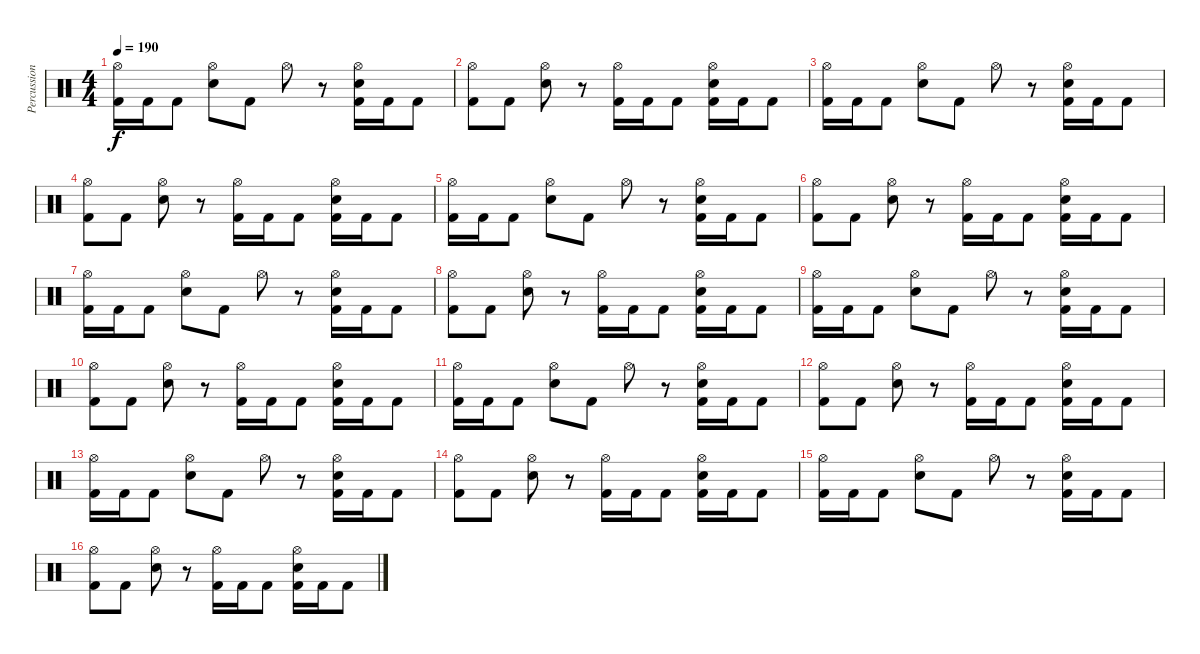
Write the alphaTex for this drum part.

\track ("Percussion" "Percussion") {instrument percussion}
\staff {score}
\articulation defaults
\ts (4 4)
\tempo 190
\clef neutral
\ks c
("Hi-Hat (open)" "Kick (hit) 2").16{dy f} "Kick (hit) 2".16 "Kick (hit) 2".8 ("Hi-Hat (open)" "Electric Snare (hit)").8 "Kick (hit) 2".8 "Hi-Hat (open)".8 r.8 ("Hi-Hat (open)" "Electric Snare (hit)" "Kick (hit) 2").16 "Kick (hit) 2".16 "Kick (hit) 2".8 |
("Hi-Hat (open)" "Kick (hit) 2").8 "Kick (hit) 2".8 ("Hi-Hat (open)" "Electric Snare (hit)").8 r.8 ("Hi-Hat (open)" "Kick (hit) 2").16 "Kick (hit) 2".16 "Kick (hit) 2".8 ("Hi-Hat (open)" "Electric Snare (hit)" "Kick (hit) 2").16 "Kick (hit) 2".16 "Kick (hit) 2".8 |
("Hi-Hat (open)" "Kick (hit) 2").16 "Kick (hit) 2".16 "Kick (hit) 2".8 ("Hi-Hat (open)" "Electric Snare (hit)").8 "Kick (hit) 2".8 "Hi-Hat (open)".8 r.8 ("Hi-Hat (open)" "Electric Snare (hit)" "Kick (hit) 2").16 "Kick (hit) 2".16 "Kick (hit) 2".8 |
("Hi-Hat (open)" "Kick (hit) 2").8 "Kick (hit) 2".8 ("Hi-Hat (open)" "Electric Snare (hit)").8 r.8 ("Hi-Hat (open)" "Kick (hit) 2").16 "Kick (hit) 2".16 "Kick (hit) 2".8 ("Hi-Hat (open)" "Electric Snare (hit)" "Kick (hit) 2").16 "Kick (hit) 2".16 "Kick (hit) 2".8 |
("Hi-Hat (open)" "Kick (hit) 2").16 "Kick (hit) 2".16 "Kick (hit) 2".8 ("Hi-Hat (open)" "Electric Snare (hit)").8 "Kick (hit) 2".8 "Hi-Hat (open)".8 r.8 ("Hi-Hat (open)" "Electric Snare (hit)" "Kick (hit) 2").16 "Kick (hit) 2".16 "Kick (hit) 2".8 |
("Hi-Hat (open)" "Kick (hit) 2").8 "Kick (hit) 2".8 ("Hi-Hat (open)" "Electric Snare (hit)").8 r.8 ("Hi-Hat (open)" "Kick (hit) 2").16 "Kick (hit) 2".16 "Kick (hit) 2".8 ("Hi-Hat (open)" "Electric Snare (hit)" "Kick (hit) 2").16 "Kick (hit) 2".16 "Kick (hit) 2".8 |
("Hi-Hat (open)" "Kick (hit) 2").16 "Kick (hit) 2".16 "Kick (hit) 2".8 ("Hi-Hat (open)" "Electric Snare (hit)").8 "Kick (hit) 2".8 "Hi-Hat (open)".8 r.8 ("Hi-Hat (open)" "Electric Snare (hit)" "Kick (hit) 2").16 "Kick (hit) 2".16 "Kick (hit) 2".8 |
("Hi-Hat (open)" "Kick (hit) 2").8 "Kick (hit) 2".8 ("Hi-Hat (open)" "Electric Snare (hit)").8 r.8 ("Hi-Hat (open)" "Kick (hit) 2").16 "Kick (hit) 2".16 "Kick (hit) 2".8 ("Hi-Hat (open)" "Electric Snare (hit)" "Kick (hit) 2").16 "Kick (hit) 2".16 "Kick (hit) 2".8 |
("Hi-Hat (open)" "Kick (hit) 2").16 "Kick (hit) 2".16 "Kick (hit) 2".8 ("Hi-Hat (open)" "Electric Snare (hit)").8 "Kick (hit) 2".8 "Hi-Hat (open)".8 r.8 ("Hi-Hat (open)" "Electric Snare (hit)" "Kick (hit) 2").16 "Kick (hit) 2".16 "Kick (hit) 2".8 |
("Hi-Hat (open)" "Kick (hit) 2").8 "Kick (hit) 2".8 ("Hi-Hat (open)" "Electric Snare (hit)").8 r.8 ("Hi-Hat (open)" "Kick (hit) 2").16 "Kick (hit) 2".16 "Kick (hit) 2".8 ("Hi-Hat (open)" "Electric Snare (hit)" "Kick (hit) 2").16 "Kick (hit) 2".16 "Kick (hit) 2".8 |
("Hi-Hat (open)" "Kick (hit) 2").16 "Kick (hit) 2".16 "Kick (hit) 2".8 ("Hi-Hat (open)" "Electric Snare (hit)").8 "Kick (hit) 2".8 "Hi-Hat (open)".8 r.8 ("Hi-Hat (open)" "Electric Snare (hit)" "Kick (hit) 2").16 "Kick (hit) 2".16 "Kick (hit) 2".8 |
("Hi-Hat (open)" "Kick (hit) 2").8 "Kick (hit) 2".8 ("Hi-Hat (open)" "Electric Snare (hit)").8 r.8 ("Hi-Hat (open)" "Kick (hit) 2").16 "Kick (hit) 2".16 "Kick (hit) 2".8 ("Hi-Hat (open)" "Electric Snare (hit)" "Kick (hit) 2").16 "Kick (hit) 2".16 "Kick (hit) 2".8 |
("Hi-Hat (open)" "Kick (hit) 2").16 "Kick (hit) 2".16 "Kick (hit) 2".8 ("Hi-Hat (open)" "Electric Snare (hit)").8 "Kick (hit) 2".8 "Hi-Hat (open)".8 r.8 ("Hi-Hat (open)" "Electric Snare (hit)" "Kick (hit) 2").16 "Kick (hit) 2".16 "Kick (hit) 2".8 |
("Hi-Hat (open)" "Kick (hit) 2").8 "Kick (hit) 2".8 ("Hi-Hat (open)" "Electric Snare (hit)").8 r.8 ("Hi-Hat (open)" "Kick (hit) 2").16 "Kick (hit) 2".16 "Kick (hit) 2".8 ("Hi-Hat (open)" "Electric Snare (hit)" "Kick (hit) 2").16 "Kick (hit) 2".16 "Kick (hit) 2".8 |
("Hi-Hat (open)" "Kick (hit) 2").16 "Kick (hit) 2".16 "Kick (hit) 2".8 ("Hi-Hat (open)" "Electric Snare (hit)").8 "Kick (hit) 2".8 "Hi-Hat (open)".8 r.8 ("Hi-Hat (open)" "Electric Snare (hit)" "Kick (hit) 2").16 "Kick (hit) 2".16 "Kick (hit) 2".8 |
("Hi-Hat (open)" "Kick (hit) 2").8 "Kick (hit) 2".8 ("Hi-Hat (open)" "Electric Snare (hit)").8 r.8 ("Hi-Hat (open)" "Kick (hit) 2").16 "Kick (hit) 2".16 "Kick (hit) 2".8 ("Hi-Hat (open)" "Electric Snare (hit)" "Kick (hit) 2").16 "Kick (hit) 2".16 "Kick (hit) 2".8
